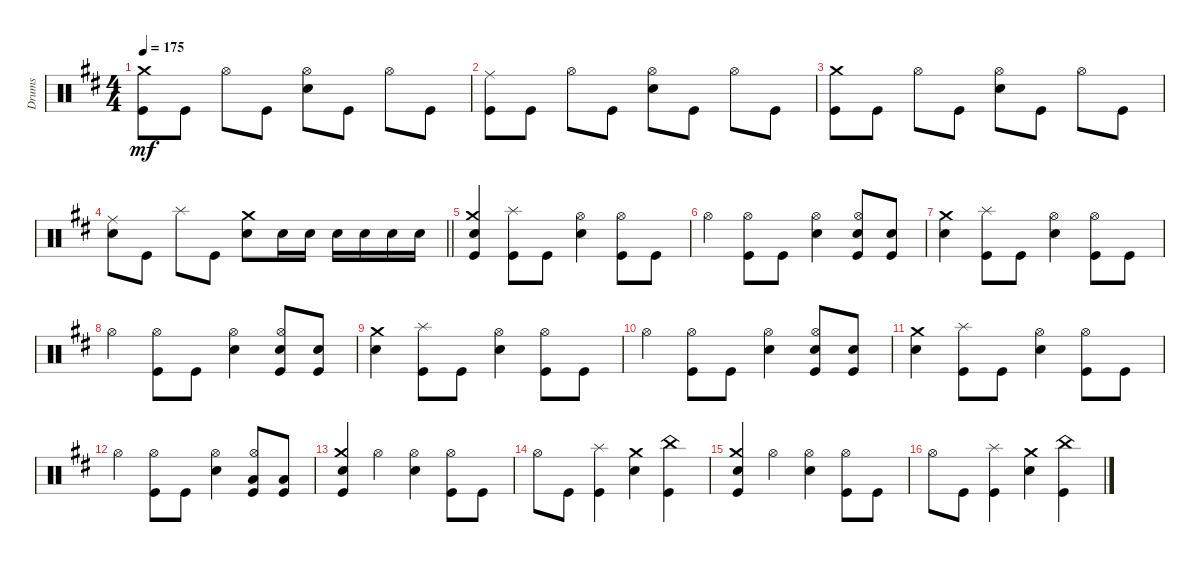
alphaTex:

\track ("Drums" "Drums") {instrument percussion}
\staff {score}
\articulation defaults
\ts (4 4)
\tempo 175
\clef neutral
\ks d
("Kick (hit)" "Crash medium (hit)").8{dy mf} "Kick (hit)".8 "Hi-Hat (open)".8 "Kick (hit)".8 ("Hi-Hat (open)" "Snare (hit) 2").8 "Kick (hit)".8 "Hi-Hat (open)".8 "Kick (hit)".8 |
("Kick (hit)" "Ride (middle)").8 "Kick (hit)".8 "Hi-Hat (open)".8 "Kick (hit)".8 ("Hi-Hat (open)" "Snare (hit) 2").8 "Kick (hit)".8 "Hi-Hat (open)".8 "Kick (hit)".8 |
("Kick (hit)" "Crash medium (hit)").8 "Kick (hit)".8 "Hi-Hat (open)".8 "Kick (hit)".8 ("Hi-Hat (open)" "Snare (hit) 2").8 "Kick (hit)".8 "Hi-Hat (open)".8 "Kick (hit)".8 |
\barLineRight lightlight
("Ride (middle)" "Snare (hit) 2").8 "Kick (hit)".8 "Splash (hit)".8 "Kick (hit)".8 ("Crash medium (hit)" "Snare (hit) 2").8 "Snare (hit) 2".16 "Snare (hit) 2".16 "Snare (hit) 2".16 "Snare (hit) 2".16 "Snare (hit) 2".16 "Snare (hit) 2".16 |
("Kick (hit)" "Snare (hit) 2" "Crash medium (hit)").4 ("Kick (hit)" "Splash (hit)").8 "Kick (hit)".8 ("Snare (hit) 2" "Hi-Hat (open)").4 ("Hi-Hat (open)" "Kick (hit)").8 "Kick (hit)".8 |
"Hi-Hat (open)".4 ("Hi-Hat (open)" "Kick (hit)").8 "Kick (hit)".8 ("Snare (hit) 2" "Hi-Hat (open)").4 ("Hi-Hat (open)" "Kick (hit)" "Snare (hit) 2").8 ("Kick (hit)" "Snare (hit) 2").8 |
("Snare (hit) 2" "Crash medium (hit)").4 ("Kick (hit)" "Splash (hit)").8 "Kick (hit)".8 ("Snare (hit) 2" "Hi-Hat (open)").4 ("Hi-Hat (open)" "Kick (hit)").8 "Kick (hit)".8 |
"Hi-Hat (open)".4 ("Hi-Hat (open)" "Kick (hit)").8 "Kick (hit)".8 ("Snare (hit) 2" "Hi-Hat (open)").4 ("Hi-Hat (open)" "Kick (hit)" "Snare (hit) 2").8 ("Kick (hit)" "Snare (hit) 2").8 |
("Snare (hit) 2" "Crash medium (hit)").4 ("Kick (hit)" "Splash (hit)").8 "Kick (hit)".8 ("Snare (hit) 2" "Hi-Hat (open)").4 ("Hi-Hat (open)" "Kick (hit)").8 "Kick (hit)".8 |
"Hi-Hat (open)".4 ("Hi-Hat (open)" "Kick (hit)").8 "Kick (hit)".8 ("Snare (hit) 2" "Hi-Hat (open)").4 ("Hi-Hat (open)" "Kick (hit)" "Snare (hit) 2").8 ("Kick (hit)" "Snare (hit) 2").8 |
("Snare (hit) 2" "Crash medium (hit)").4 ("Kick (hit)" "Splash (hit)").8 "Kick (hit)".8 ("Snare (hit) 2" "Hi-Hat (open)").4 ("Hi-Hat (open)" "Kick (hit)").8 "Kick (hit)".8 |
"Hi-Hat (open)".4 ("Hi-Hat (open)" "Kick (hit)").8 "Kick (hit)".8 ("Snare (hit) 2" "Hi-Hat (open)").4 ("Hi-Hat (open)" "Kick (hit)" "Low Floor Tom (hit)").8 ("Kick (hit)" "Low Floor Tom (hit)").8 |
("Crash medium (hit)" "Snare (hit) 2" "Kick (hit)").4 "Hi-Hat (open)".4 ("Hi-Hat (open)" "Snare (hit) 2").4 ("Hi-Hat (open)" "Kick (hit)").8 "Kick (hit)".8 |
"Hi-Hat (open)".8 "Kick (hit)".8 ("Kick (hit)" "Splash (hit)").4 ("Crash medium (hit)" "Snare (hit) 2").4 ("China (hit)" "Kick (hit)").4 |
("Crash medium (hit)" "Snare (hit) 2" "Kick (hit)").4 "Hi-Hat (open)".4 ("Hi-Hat (open)" "Snare (hit) 2").4 ("Hi-Hat (open)" "Kick (hit)").8 "Kick (hit)".8 |
"Hi-Hat (open)".8 "Kick (hit)".8 ("Kick (hit)" "Splash (hit)").4 ("Crash medium (hit)" "Snare (hit) 2").4 ("China (hit)" "Kick (hit)").4
